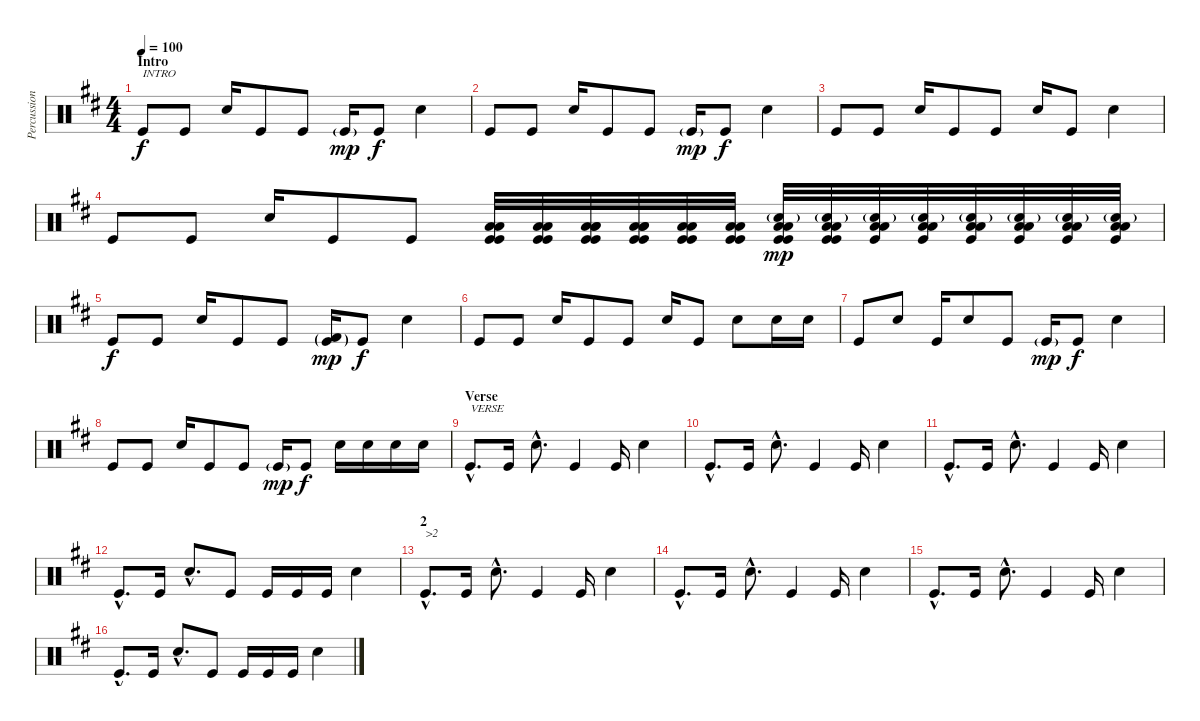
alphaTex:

\track ("Percussion" "Percussion") {instrument percussion}
\staff {score}
\articulation defaults
\ts (4 4)
\section ("" "Intro")
\tempo 100
\clef neutral
\ks d "Kick (hit)".8{txt "INTRO" dy f} "Kick (hit)".8 "Electric Snare (hit)".16 "Kick (hit)".8 "Kick (hit)".8 "Kick (hit)"{g}.16{dy mp} "Kick (hit)".8{dy f} "Electric Snare (hit)".4
|
"Kick (hit)".8 "Kick (hit)".8 "Electric Snare (hit)".16 "Kick (hit)".8 "Kick (hit)".8 "Kick (hit)"{g}.16{dy mp} "Kick (hit)".8{dy f} "Electric Snare (hit)".4 |
"Kick (hit)".8 "Kick (hit)".8 "Electric Snare (hit)".16 "Kick (hit)".8 "Kick (hit)".8 "Electric Snare (hit)".16 "Kick (hit)".8 "Electric Snare (hit)".4 |
"Kick (hit)".8 "Kick (hit)".8 "Electric Snare (hit)".16 "Kick (hit)".8 "Kick (hit)".8 ("Kick (hit)" "Low Tom (hit)" "Low Tom (hit)" "Kick (hit)").32 ("Kick (hit)" "Low Tom (hit)" "Low Tom (hit)" "Kick (hit)").32 ("Kick (hit)" "Low Tom (hit)" "Low Tom (hit)" "Low Tom (hit)" "Kick (hit)").32 ("Kick (hit)" "Low Tom (hit)" "Low Tom (hit)" "Low Tom (hit)" "Kick (hit)").32 ("Kick (hit)" "Kick (hit)" "Low Tom (hit)" "Low Tom (hit)").32{balance 2} ("Kick (hit)" "Kick (hit)" "Low Tom (hit)" "Low Tom (hit)").32 ("Kick (hit)" "Kick (hit)" "Low Tom (hit)" "Low Tom (hit)" "Electric Snare (hit)"{g}).32{dy mp} ("Kick (hit)" "Kick (hit)" "Low Tom (hit)" "Low Tom (hit)" "Electric Snare (hit)"{g}).32 ("Kick (hit)" "Low Tom (hit)" "Low Tom (hit)" "Electric Snare (hit)"{g}).32{balance 14} ("Kick (hit)" "Low Tom (hit)" "Low Tom (hit)" "Electric Snare (hit)"{g}).32 ("Kick (hit)" "Low Tom (hit)" "Low Tom (hit)" "Electric Snare (hit)"{g}).32 ("Kick (hit)" "Low Tom (hit)" "Low Tom (hit)" "Electric Snare (hit)"{g}).32{balance 2} ("Kick (hit)" "Low Tom (hit)" "Low Tom (hit)" "Electric Snare (hit)"{g}).32 ("Kick (hit)" "Low Tom (hit)" "Low Tom (hit)" "Electric Snare (hit)"{g}).32{balance 14} |
"Kick (hit)".8{dy f balance 8} "Kick (hit)".8 "Electric Snare (hit)".16 "Kick (hit)".8 "Kick (hit)".8 ("Kick (hit) 2"{g} "Kick (hit)"{g}).16{dy mp} "Kick (hit)".8{dy f} "Electric Snare (hit)".4 |
"Kick (hit)".8 "Kick (hit)".8 "Electric Snare (hit)".16 "Kick (hit)".8 "Kick (hit)".8 "Electric Snare (hit)".16 "Kick (hit)".8 "Electric Snare (hit)".8 "Electric Snare (hit)".16 "Electric Snare (hit)".16 |
"Kick (hit)".8 "Electric Snare (hit)".8 "Kick (hit)".16 "Electric Snare (hit)".8 "Kick (hit)".8 "Kick (hit)"{g}.16{dy mp} "Kick (hit)".8{dy f} "Electric Snare (hit)".4 |
"Kick (hit)".8 "Kick (hit)".8 "Electric Snare (hit)".16 "Kick (hit)".8 "Kick (hit)".8 "Kick (hit)"{g}.16{dy mp} "Kick (hit)".8{dy f} "Electric Snare (hit)".16 "Electric Snare (hit)".16 "Electric Snare (hit)".16 "Electric Snare (hit)".16 |
\section ("" "Verse")
"Kick (hit)"{hac}.8{d txt "VERSE"} "Kick (hit)".16 "Electric Snare (hit)"{hac}.8{d} "Kick (hit)".4 "Kick (hit)".16 "Electric Snare (hit)".4 |
"Kick (hit)"{hac}.8{d} "Kick (hit)".16 "Electric Snare (hit)"{hac}.8{d} "Kick (hit)".4 "Kick (hit)".16 "Electric Snare (hit)".4 |
"Kick (hit)"{hac}.8{d} "Kick (hit)".16 "Electric Snare (hit)"{hac}.8{d} "Kick (hit)".4 "Kick (hit)".16 "Electric Snare (hit)".4 |
"Kick (hit)"{hac}.8{d} "Kick (hit)".16 "Electric Snare (hit)"{hac}.8{d} "Kick (hit)".8 "Kick (hit)".16 "Kick (hit)".16 "Kick (hit)".16 "Electric Snare (hit)".4 |
\section ("" "2")
"Kick (hit)"{hac}.8{d txt ">2"} "Kick (hit)".16 "Electric Snare (hit)"{hac}.8{d} "Kick (hit)".4 "Kick (hit)".16 "Electric Snare (hit)".4 |
"Kick (hit)"{hac}.8{d} "Kick (hit)".16 "Electric Snare (hit)"{hac}.8{d} "Kick (hit)".4 "Kick (hit)".16 "Electric Snare (hit)".4 |
"Kick (hit)"{hac}.8{d} "Kick (hit)".16 "Electric Snare (hit)"{hac}.8{d} "Kick (hit)".4 "Kick (hit)".16 "Electric Snare (hit)".4 |
"Kick (hit)"{hac}.8{d} "Kick (hit)".16 "Electric Snare (hit)"{hac}.8{d} "Kick (hit)".8 "Kick (hit)".16 "Kick (hit)".16 "Kick (hit)".16 "Electric Snare (hit)".4
